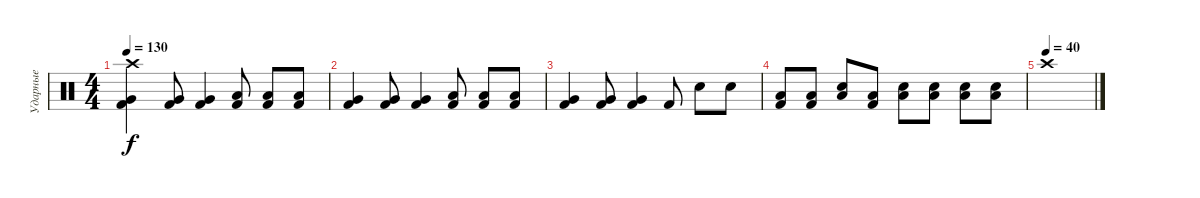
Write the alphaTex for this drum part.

\track ("Ударные" "Ударные") {instrument percussion}
\staff {score}
\articulation defaults
\ts (4 4)
\tempo 130
\clef neutral
\ks c
("Kick (hit) 2" "Very Low Tom (hit)" "Crash high (hit)").4{dy f} ("Kick (hit) 2" "Very Low Tom (hit)").8 ("Kick (hit) 2" "Very Low Tom (hit)").4 ("Kick (hit) 2" "Low Floor Tom (hit)").8 ("Kick (hit) 2" "Low Floor Tom (hit)").8 ("Kick (hit) 2" "Low Floor Tom (hit)").8 |
("Kick (hit) 2" "Very Low Tom (hit)").4 ("Kick (hit) 2" "Very Low Tom (hit)").8 ("Kick (hit) 2" "Very Low Tom (hit)").4 ("Kick (hit) 2" "Low Floor Tom (hit)").8 ("Kick (hit) 2" "Low Floor Tom (hit)").8 ("Kick (hit) 2" "Low Floor Tom (hit)").8 |
("Kick (hit) 2" "Very Low Tom (hit)").4 ("Kick (hit) 2" "Very Low Tom (hit)").8 ("Kick (hit) 2" "Very Low Tom (hit)").4 "Kick (hit) 2".8 "Snare (hit) 2".8 "Snare (hit) 2".8 |
("Kick (hit) 2" "Low Floor Tom (hit)").8 ("Kick (hit) 2" "Low Floor Tom (hit)").8 ("Snare (hit) 2" "Low Floor Tom (hit)").8 ("Kick (hit) 2" "Low Floor Tom (hit)").8 ("Snare (hit) 2" "Low Floor Tom (hit)").8 ("Snare (hit) 2" "Low Floor Tom (hit)").8 ("Snare (hit) 2" "Low Floor Tom (hit)").8 ("Snare (hit) 2" "Low Floor Tom (hit)").8 |
\tempo (40)
"Crash high (hit)".1
